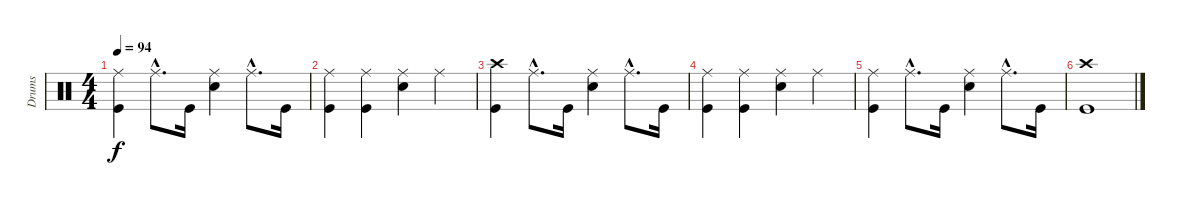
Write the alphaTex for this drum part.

\track ("Drums" "Drums") {instrument percussion}
\staff {score}
\articulation defaults
\ts (4 4)
\tempo 94
\clef neutral
\ks c
("Ride (middle)" "Kick (hit)").4{dy f} "Ride (middle)"{hac}.8{d} "Kick (hit)".16 ("Ride (middle)" "Snare (hit) 2").4 "Ride (middle)"{hac}.8{d} "Kick (hit)".16 |
("Ride (middle)" "Kick (hit)").4 ("Ride (middle)" "Kick (hit)").4 ("Ride (middle)" "Snare (hit) 2").4 "Ride (middle)".4 |
("Crash high (hit)" "Kick (hit)").4 "Ride (middle)"{hac}.8{d} "Kick (hit)".16 ("Ride (middle)" "Snare (hit) 2").4 "Ride (middle)"{hac}.8{d} "Kick (hit)".16 |
("Ride (middle)" "Kick (hit)").4 ("Ride (middle)" "Kick (hit)").4 ("Ride (middle)" "Snare (hit) 2").4 "Ride (middle)".4 |
("Ride (middle)" "Kick (hit)").4 "Ride (middle)"{hac}.8{d} "Kick (hit)".16 ("Ride (middle)" "Snare (hit) 2").4 "Ride (middle)"{hac}.8{d} "Kick (hit)".16 |
("Crash high (hit)" "Kick (hit)").1
